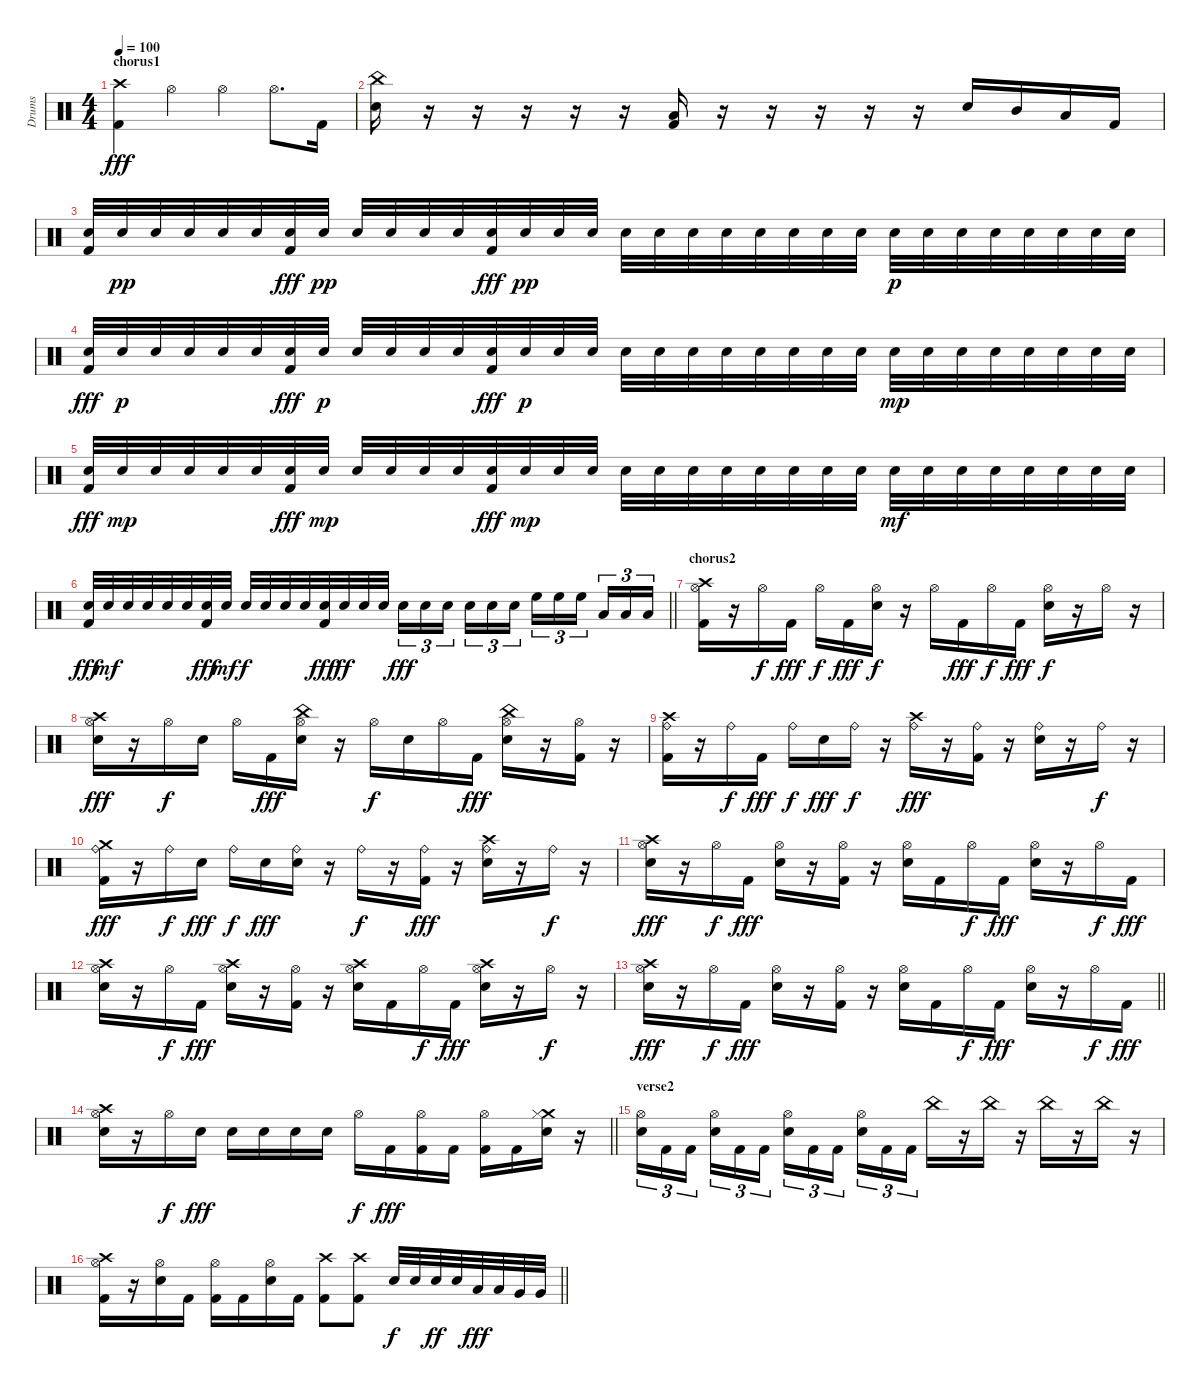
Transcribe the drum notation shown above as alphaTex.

\track ("Drums" "Drums") {instrument percussion}
\staff {score}
\articulation defaults
\ts (4 4)
\section ("" "chorus1")
\tempo 100
\clef neutral
\ks c
("Crash high (hit)" "Kick (hit) 2").4{dy fff} "Hi-Hat (open)".4 "Hi-Hat (open)".4 "Hi-Hat (open)".8{d} "Kick (hit) 2".16 |
("China (hit)" "Snare (hit) 2").16 r.16 r.16 r.16 r.16 r.16 ("Low Floor Tom (hit)" "Kick (hit) 2").16 r.16 r.16 r.16 r.16 r.16 "Electric Snare (hit)".16 "Mid Tom (hit)".16 "Low Floor Tom (hit)".16 "Kick (hit) 2".16 |
("Snare (hit) 2" "Kick (hit) 2").32 "Snare (hit) 2".32{dy pp} "Snare (hit) 2".32 "Snare (hit) 2".32 "Snare (hit) 2".32 "Snare (hit) 2".32 ("Snare (hit) 2" "Kick (hit) 2").32{dy fff} "Snare (hit) 2".32{dy pp} "Snare (hit) 2".32 "Snare (hit) 2".32 "Snare (hit) 2".32 "Snare (hit) 2".32 ("Snare (hit) 2" "Kick (hit) 2").32{dy fff} "Snare (hit) 2".32{dy pp} "Snare (hit) 2".32 "Snare (hit) 2".32 "Snare (hit) 2".32 "Snare (hit) 2".32 "Snare (hit) 2".32 "Snare (hit) 2".32 "Snare (hit) 2".32 "Snare (hit) 2".32 "Snare (hit) 2".32 "Snare (hit) 2".32 "Snare (hit) 2".32{dy p} "Snare (hit) 2".32 "Snare (hit) 2".32 "Snare (hit) 2".32 "Snare (hit) 2".32 "Snare (hit) 2".32 "Snare (hit) 2".32 "Snare (hit) 2".32 |
("Snare (hit) 2" "Kick (hit) 2").32{dy fff} "Snare (hit) 2".32{dy p} "Snare (hit) 2".32 "Snare (hit) 2".32 "Snare (hit) 2".32 "Snare (hit) 2".32 ("Snare (hit) 2" "Kick (hit) 2").32{dy fff} "Snare (hit) 2".32{dy p} "Snare (hit) 2".32 "Snare (hit) 2".32 "Snare (hit) 2".32 "Snare (hit) 2".32 ("Snare (hit) 2" "Kick (hit) 2").32{dy fff} "Snare (hit) 2".32{dy p} "Snare (hit) 2".32 "Snare (hit) 2".32 "Snare (hit) 2".32 "Snare (hit) 2".32 "Snare (hit) 2".32 "Snare (hit) 2".32 "Snare (hit) 2".32 "Snare (hit) 2".32 "Snare (hit) 2".32 "Snare (hit) 2".32 "Snare (hit) 2".32{dy mp} "Snare (hit) 2".32 "Snare (hit) 2".32 "Snare (hit) 2".32 "Snare (hit) 2".32 "Snare (hit) 2".32 "Snare (hit) 2".32 "Snare (hit) 2".32 |
("Snare (hit) 2" "Kick (hit) 2").32{dy fff} "Snare (hit) 2".32{dy mp} "Snare (hit) 2".32 "Snare (hit) 2".32 "Snare (hit) 2".32 "Snare (hit) 2".32 ("Snare (hit) 2" "Kick (hit) 2").32{dy fff} "Snare (hit) 2".32{dy mp} "Snare (hit) 2".32 "Snare (hit) 2".32 "Snare (hit) 2".32 "Snare (hit) 2".32 ("Snare (hit) 2" "Kick (hit) 2").32{dy fff} "Snare (hit) 2".32{dy mp} "Snare (hit) 2".32 "Snare (hit) 2".32 "Snare (hit) 2".32 "Snare (hit) 2".32 "Snare (hit) 2".32 "Snare (hit) 2".32 "Snare (hit) 2".32 "Snare (hit) 2".32 "Snare (hit) 2".32 "Snare (hit) 2".32 "Snare (hit) 2".32{dy mf} "Snare (hit) 2".32 "Snare (hit) 2".32 "Snare (hit) 2".32 "Snare (hit) 2".32 "Snare (hit) 2".32 "Snare (hit) 2".32 "Snare (hit) 2".32 |
\barLineRight lightlight
("Snare (hit) 2" "Kick (hit) 2").32{dy fff} "Snare (hit) 2".32{dy mf} "Snare (hit) 2".32 "Snare (hit) 2".32 "Snare (hit) 2".32 "Snare (hit) 2".32 ("Snare (hit) 2" "Kick (hit) 2").32{dy fff} "Snare (hit) 2".32{dy mf} "Snare (hit) 2".32{dy f} "Snare (hit) 2".32 "Snare (hit) 2".32 "Snare (hit) 2".32 ("Snare (hit) 2" "Kick (hit) 2").32{dy fff} "Snare (hit) 2".32{dy ff} "Snare (hit) 2".32 "Snare (hit) 2".32 "Snare (hit) 2".16{tu (3 2) dy fff} "Snare (hit) 2".16{tu (3 2)} "Snare (hit) 2".16{tu (3 2) beam splitsecondary} "Snare (hit) 2".16{tu (3 2)} "Snare (hit) 2".16{tu (3 2)} "Snare (hit) 2".16{tu (3 2)} "High Floor Tom (hit)".16{tu (3 2)} "High Floor Tom (hit)".16{tu (3 2)} "High Floor Tom (hit)".16{tu (3 2) beam splitsecondary} "Low Floor Tom (hit)".16{tu (3 2)} "Low Floor Tom (hit)".16{tu (3 2)} "Low Floor Tom (hit)".16{tu (3 2)} |
\section ("" "chorus2")
("Crash high (hit)" "Hi-Hat (open)" "Kick (hit) 2").16 r.16 "Hi-Hat (open)".16{dy f} "Kick (hit) 2".16{dy fff} "Hi-Hat (open)".16{dy f} "Kick (hit) 2".16{dy fff} ("Snare (hit) 2" "Hi-Hat (open)").16{dy f} r.16 "Hi-Hat (open)".16 "Kick (hit) 2".16{dy fff} "Hi-Hat (open)".16{dy f} "Kick (hit) 2".16{dy fff} ("Snare (hit) 2" "Hi-Hat (open)").16{dy f} r.16 "Hi-Hat (open)".16 r.16 |
("Crash high (hit)" "Snare (hit) 2" "Hi-Hat (open)").16{dy fff} r.16 "Hi-Hat (open)".16{dy f} "Snare (hit) 2".16 "Hi-Hat (open)".16 "Kick (hit) 2".16{dy fff} ("China (hit)" "Snare (hit) 2" "Hi-Hat (open)").16 r.16 "Hi-Hat (open)".16{dy f} "Snare (hit) 2".16 "Hi-Hat (open)".16 "Kick (hit) 2".16{dy fff} ("China (hit)" "Snare (hit) 2" "Hi-Hat (open)").16 r.16 ("Hi-Hat (open)" "Kick (hit) 2").16 r.16 |
("Crash high (hit)" "Ride (bell)" "Kick (hit) 2").16 r.16 "Ride (bell)".16{dy f} "Kick (hit) 2".16{dy fff} "Ride (bell)".16{dy f} "Snare (hit) 2".16{dy fff} "Ride (bell)".16{dy f} r.16 ("Crash high (hit)" "Ride (bell)").16{dy fff} r.16 ("Ride (bell)" "Kick (hit) 2").16 r.16 ("Ride (bell)" "Snare (hit) 2").16 r.16 "Ride (bell)".16{dy f} r.16 |
("Crash medium (hit)" "Ride (bell)" "Kick (hit) 2").16{dy fff} r.16 "Ride (bell)".16{dy f} "Snare (hit) 2".16{dy fff} "Ride (bell)".16{dy f} "Snare (hit) 2".16{dy fff} ("Ride (bell)" "Snare (hit) 2").16 r.16 "Ride (bell)".16{dy f} r.16 ("Ride (bell)" "Kick (hit) 2").16{dy fff} r.16 ("Crash high (hit)" "Ride (bell)" "Snare (hit) 2").16 r.16 "Ride (bell)".16{dy f} r.16 |
("Crash high (hit)" "Snare (hit) 2" "Hi-Hat (open)").16{dy fff} r.16 "Hi-Hat (open)".16{dy f} "Kick (hit) 2".16{dy fff} ("Snare (hit) 2" "Hi-Hat (open)").16 r.16 ("Hi-Hat (open)" "Kick (hit) 2").16 r.16 ("Snare (hit) 2" "Hi-Hat (open)").16 "Kick (hit) 2".16 "Hi-Hat (open)".16{dy f} "Kick (hit) 2".16{dy fff} ("Snare (hit) 2" "Hi-Hat (open)").16 r.16 "Hi-Hat (open)".16{dy f} "Kick (hit) 2".16{dy fff} |
("Crash high (hit)" "Snare (hit) 2" "Hi-Hat (open)").16 r.16 "Hi-Hat (open)".16{dy f} "Kick (hit) 2".16{dy fff} ("Crash high (hit)" "Snare (hit) 2" "Hi-Hat (open)").16 r.16 ("Hi-Hat (open)" "Kick (hit) 2").16 r.16 ("Crash high (hit)" "Snare (hit) 2" "Hi-Hat (open)").16 "Kick (hit) 2".16 "Hi-Hat (open)".16{dy f} "Kick (hit) 2".16{dy fff} ("Crash high (hit)" "Snare (hit) 2" "Hi-Hat (open)").16 r.16 "Hi-Hat (open)".16{dy f} r.16 |
\barLineRight lightlight
("Crash high (hit)" "Snare (hit) 2" "Hi-Hat (open)").16{dy fff} r.16 "Hi-Hat (open)".16{dy f} "Kick (hit) 2".16{dy fff} ("Snare (hit) 2" "Hi-Hat (open)").16 r.16 ("Hi-Hat (open)" "Kick (hit) 2").16 r.16 ("Snare (hit) 2" "Hi-Hat (open)").16 "Kick (hit) 2".16 "Hi-Hat (open)".16{dy f} "Kick (hit) 2".16{dy fff} ("Snare (hit) 2" "Hi-Hat (open)").16 r.16 "Hi-Hat (open)".16{dy f} "Kick (hit) 2".16{dy fff} |
\barLineRight lightlight
("Crash high (hit)" "Hi-Hat (open)" "Snare (hit) 2").16 r.16 "Hi-Hat (open)".16{dy f} "Snare (hit) 2".16{dy fff} "Snare (hit) 2".16 "Snare (hit) 2".16 "Snare (hit) 2".16 "Snare (hit) 2".16 "Hi-Hat (open)".16{dy f} "Kick (hit) 2".16{dy fff} ("Hi-Hat (open)" "Kick (hit) 2").16 "Kick (hit) 2".16 ("Hi-Hat (open)" "Kick (hit) 2").16 "Kick (hit) 2".16 ("Crash medium (hit)" "Hi-Hat (closed)" "Snare (hit) 2").16 r.16 |
\section ("" "verse2")
("Snare (hit) 2" "Hi-Hat (open)").16{tu (3 2)} "Kick (hit) 2".16{tu (3 2)} "Kick (hit) 2".16{tu (3 2) beam splitsecondary} ("Snare (hit) 2" "Hi-Hat (open)").16{tu (3 2)} "Kick (hit) 2".16{tu (3 2)} "Kick (hit) 2".16{tu (3 2)} ("Snare (hit) 2" "Hi-Hat (open)").16{tu (3 2)} "Kick (hit) 2".16{tu (3 2)} "Kick (hit) 2".16{tu (3 2) beam splitsecondary} ("Snare (hit) 2" "Hi-Hat (open)").16{tu (3 2)} "Kick (hit) 2".16{tu (3 2)} "Kick (hit) 2".16{tu (3 2)} "China (hit)".16 r.16 "China (hit)".16 r.16 "China (hit)".16 r.16 "China (hit)".16 r.16 |
\barLineRight lightlight
("Crash high (hit)" "Hi-Hat (open)" "Kick (hit) 2").16 r.16 ("Hi-Hat (open)" "Snare (hit) 2").16 "Kick (hit) 2".16 ("Hi-Hat (open)" "Kick (hit) 2").16 "Kick (hit) 2".16 ("Hi-Hat (open)" "Snare (hit) 2").16 "Kick (hit) 2".16 ("Crash high (hit)" "Kick (hit) 2").8 ("Crash high (hit)" "Kick (hit) 2").8 "Snare (hit) 2".32{dy f} "Snare (hit) 2".32 "Snare (hit) 2".32{dy ff} "Snare (hit) 2".32 "Low Tom (hit)".32{dy fff} "Low Tom (hit)".32 "Very Low Tom (hit)".32 "Very Low Tom (hit)".32
